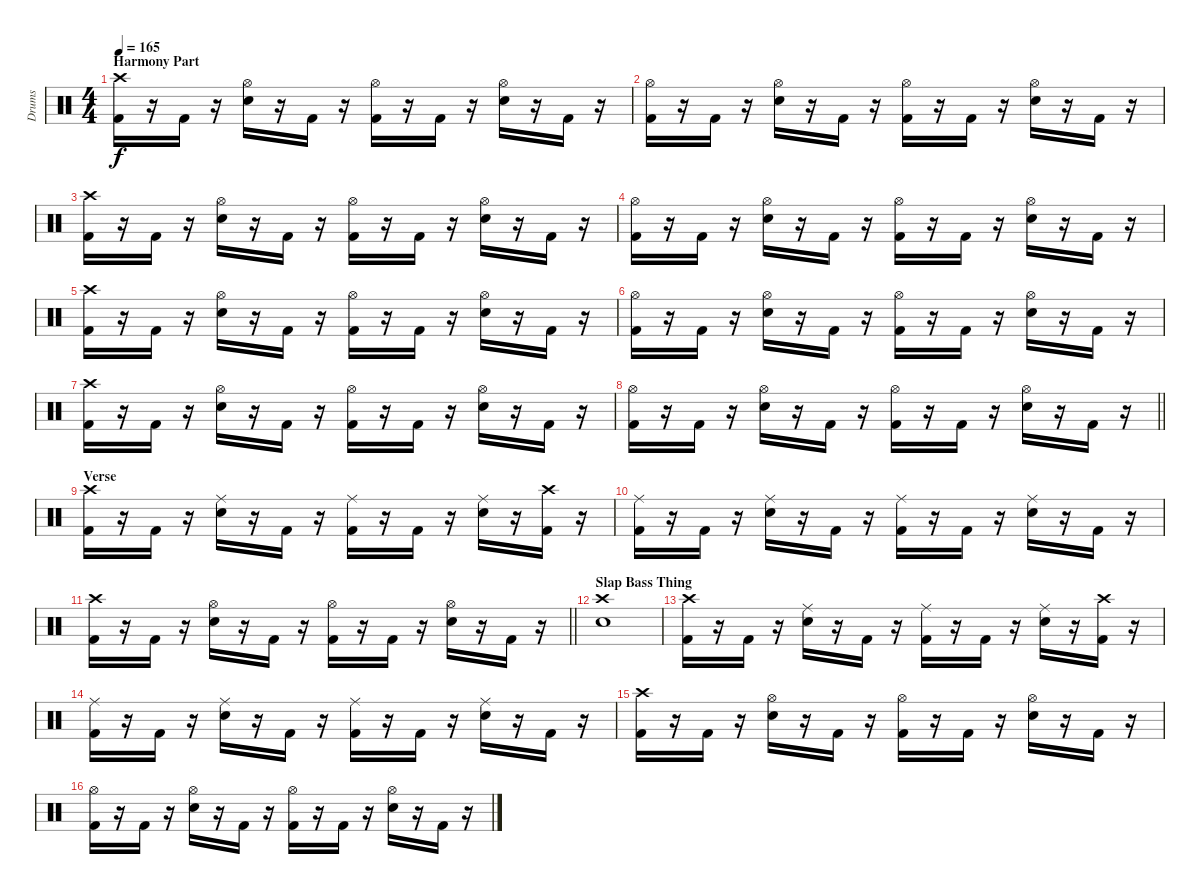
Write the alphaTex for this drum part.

\track ("Drums" "Drums") {instrument percussion}
\staff {score}
\articulation defaults
\ts (4 4)
\section ("" "Harmony Part")
\tempo 165
\clef neutral
\ks c
("Crash high (hit)" "Kick (hit) 2").16{dy f} r.16 "Kick (hit) 2".16 r.16 ("Hi-Hat (open)" "Snare (hit) 2").16 r.16 "Kick (hit) 2".16 r.16 ("Hi-Hat (open)" "Kick (hit) 2").16 r.16 "Kick (hit) 2".16 r.16 ("Hi-Hat (open)" "Snare (hit) 2").16 r.16 "Kick (hit) 2".16 r.16 |
("Hi-Hat (open)" "Kick (hit) 2").16 r.16 "Kick (hit) 2".16 r.16 ("Hi-Hat (open)" "Snare (hit) 2").16 r.16 "Kick (hit) 2".16 r.16 ("Hi-Hat (open)" "Kick (hit) 2").16 r.16 "Kick (hit) 2".16 r.16 ("Hi-Hat (open)" "Snare (hit) 2").16 r.16 "Kick (hit) 2".16 r.16 |
("Crash high (hit)" "Kick (hit) 2").16 r.16 "Kick (hit) 2".16 r.16 ("Hi-Hat (open)" "Snare (hit) 2").16 r.16 "Kick (hit) 2".16 r.16 ("Hi-Hat (open)" "Kick (hit) 2").16 r.16 "Kick (hit) 2".16 r.16 ("Hi-Hat (open)" "Snare (hit) 2").16 r.16 "Kick (hit) 2".16 r.16 |
("Hi-Hat (open)" "Kick (hit) 2").16 r.16 "Kick (hit) 2".16 r.16 ("Hi-Hat (open)" "Snare (hit) 2").16 r.16 "Kick (hit) 2".16 r.16 ("Hi-Hat (open)" "Kick (hit) 2").16 r.16 "Kick (hit) 2".16 r.16 ("Hi-Hat (open)" "Snare (hit) 2").16 r.16 "Kick (hit) 2".16 r.16 |
("Crash high (hit)" "Kick (hit) 2").16 r.16 "Kick (hit) 2".16 r.16 ("Hi-Hat (open)" "Snare (hit) 2").16 r.16 "Kick (hit) 2".16 r.16 ("Hi-Hat (open)" "Kick (hit) 2").16 r.16 "Kick (hit) 2".16 r.16 ("Hi-Hat (open)" "Snare (hit) 2").16 r.16 "Kick (hit) 2".16 r.16 |
("Hi-Hat (open)" "Kick (hit) 2").16 r.16 "Kick (hit) 2".16 r.16 ("Hi-Hat (open)" "Snare (hit) 2").16 r.16 "Kick (hit) 2".16 r.16 ("Hi-Hat (open)" "Kick (hit) 2").16 r.16 "Kick (hit) 2".16 r.16 ("Hi-Hat (open)" "Snare (hit) 2").16 r.16 "Kick (hit) 2".16 r.16 |
("Crash high (hit)" "Kick (hit) 2").16 r.16 "Kick (hit) 2".16 r.16 ("Hi-Hat (open)" "Snare (hit) 2").16 r.16 "Kick (hit) 2".16 r.16 ("Hi-Hat (open)" "Kick (hit) 2").16 r.16 "Kick (hit) 2".16 r.16 ("Hi-Hat (open)" "Snare (hit) 2").16 r.16 "Kick (hit) 2".16 r.16 |
\barLineRight lightlight
("Hi-Hat (open)" "Kick (hit) 2").16 r.16 "Kick (hit) 2".16 r.16 ("Hi-Hat (open)" "Snare (hit) 2").16 r.16 "Kick (hit) 2".16 r.16 ("Hi-Hat (open)" "Kick (hit) 2").16 r.16 "Kick (hit) 2".16 r.16 ("Hi-Hat (open)" "Snare (hit) 2").16 r.16 "Kick (hit) 2".16 r.16 |
\section ("" "Verse")
("Crash high (hit)" "Kick (hit) 2").16 r.16 "Kick (hit) 2".16 r.16 ("Ride (middle)" "Snare (hit) 2").16 r.16 "Kick (hit) 2".16 r.16 ("Ride (middle)" "Kick (hit) 2").16 r.16 "Kick (hit) 2".16 r.16 ("Ride (middle)" "Snare (hit) 2").16 r.16 ("Crash high (hit)" "Kick (hit) 2").16 r.16 |
("Ride (middle)" "Kick (hit) 2").16 r.16 "Kick (hit) 2".16 r.16 ("Ride (middle)" "Snare (hit) 2").16 r.16 "Kick (hit) 2".16 r.16 ("Ride (middle)" "Kick (hit) 2").16 r.16 "Kick (hit) 2".16 r.16 ("Ride (middle)" "Snare (hit) 2").16 r.16 "Kick (hit) 2".16 r.16 |
\barLineRight lightlight
("Crash high (hit)" "Kick (hit) 2").16 r.16 "Kick (hit) 2".16 r.16 ("Hi-Hat (open)" "Snare (hit) 2").16 r.16 "Kick (hit) 2".16 r.16 ("Hi-Hat (open)" "Kick (hit) 2").16 r.16 "Kick (hit) 2".16 r.16 ("Hi-Hat (open)" "Snare (hit) 2").16 r.16 "Kick (hit) 2".16 r.16 |
\section ("" "Slap Bass Thing")
("Snare (hit) 2" "Crash high (hit)").1 |
("Crash high (hit)" "Kick (hit) 2").16 r.16 "Kick (hit) 2".16 r.16 ("Ride (middle)" "Snare (hit) 2").16 r.16 "Kick (hit) 2".16 r.16 ("Ride (middle)" "Kick (hit) 2").16 r.16 "Kick (hit) 2".16 r.16 ("Ride (middle)" "Snare (hit) 2").16 r.16 ("Crash high (hit)" "Kick (hit) 2").16 r.16 |
("Ride (middle)" "Kick (hit) 2").16 r.16 "Kick (hit) 2".16 r.16 ("Ride (middle)" "Snare (hit) 2").16 r.16 "Kick (hit) 2".16 r.16 ("Ride (middle)" "Kick (hit) 2").16 r.16 "Kick (hit) 2".16 r.16 ("Ride (middle)" "Snare (hit) 2").16 r.16 "Kick (hit) 2".16 r.16 |
("Crash high (hit)" "Kick (hit) 2").16 r.16 "Kick (hit) 2".16 r.16 ("Hi-Hat (open)" "Snare (hit) 2").16 r.16 "Kick (hit) 2".16 r.16 ("Hi-Hat (open)" "Kick (hit) 2").16 r.16 "Kick (hit) 2".16 r.16 ("Hi-Hat (open)" "Snare (hit) 2").16 r.16 "Kick (hit) 2".16 r.16 |
("Hi-Hat (open)" "Kick (hit) 2").16 r.16 "Kick (hit) 2".16 r.16 ("Hi-Hat (open)" "Snare (hit) 2").16 r.16 "Kick (hit) 2".16 r.16 ("Hi-Hat (open)" "Kick (hit) 2").16 r.16 "Kick (hit) 2".16 r.16 ("Hi-Hat (open)" "Snare (hit) 2").16 r.16 "Kick (hit) 2".16 r.16
